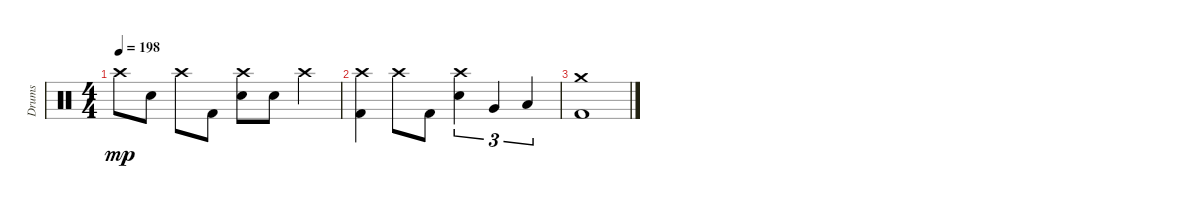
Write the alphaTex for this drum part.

\track ("Drums" "Drums") {instrument percussion}
\staff {score}
\articulation defaults
\ts (4 4)
\tempo 198
\clef neutral
\ks c "Crash high (hit)".8{dy mp} "Snare (hit) 2".8 "Crash high (hit)".8 "Kick (hit) 2".8
("Crash high (hit)" "Snare (hit) 2").8 "Snare (hit) 2".8 "Crash high (hit)".4 |
("Crash high (hit)" "Kick (hit) 2").4 "Crash high (hit)".8 "Kick (hit) 2".8 ("Crash high (hit)" "Snare (hit) 2").4{tu (3 2)} "Very Low Tom (hit)".4{tu (3 2)} "Low Floor Tom (hit)".4{tu (3 2)} |
("Crash medium (hit)" "Kick (hit) 2").1
